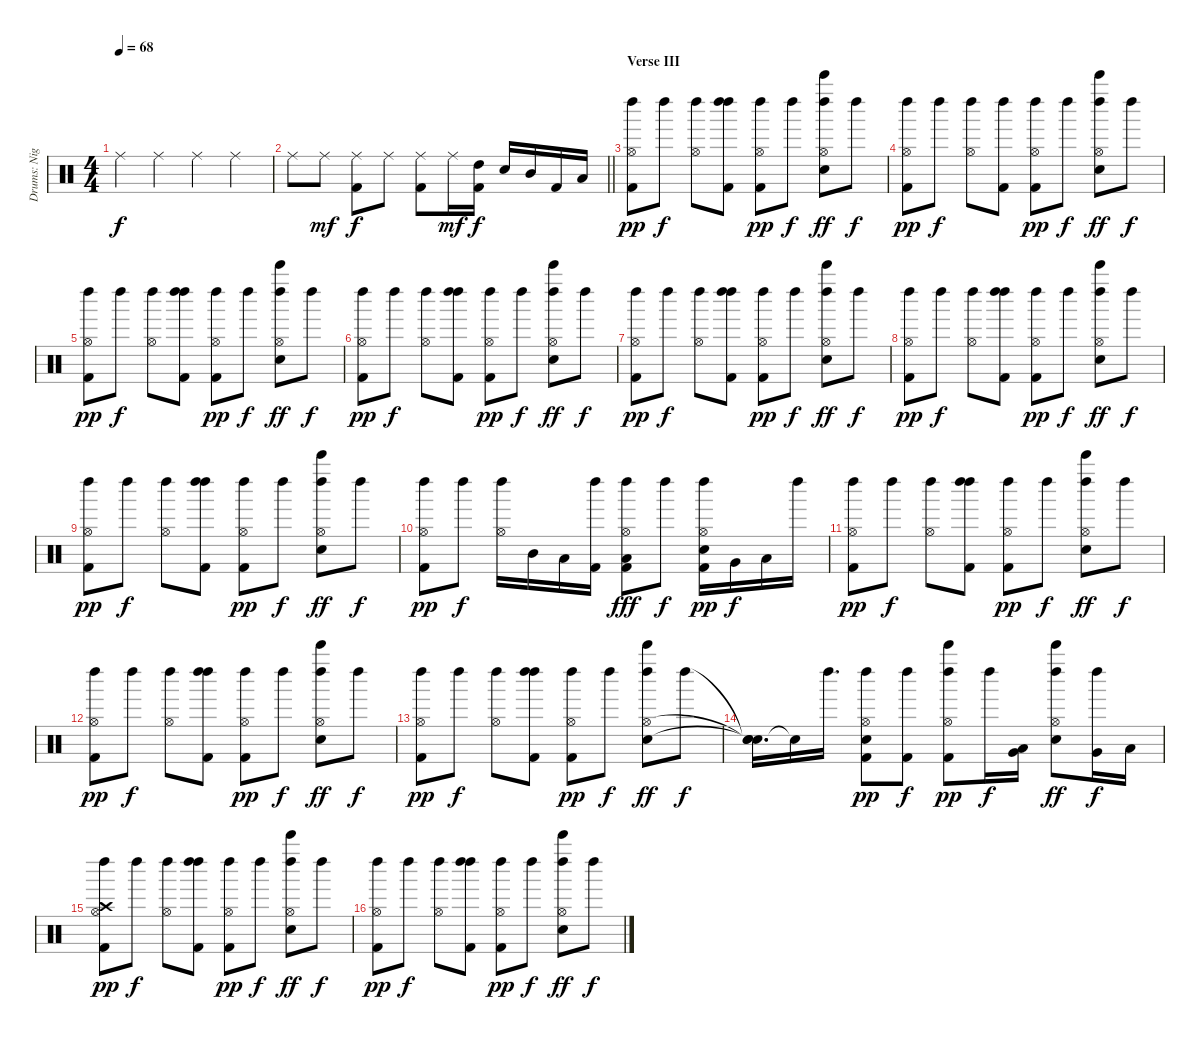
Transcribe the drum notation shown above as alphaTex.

\track ("Drums: Nigel Olsson" "Drums: Nig") {instrument percussion}
\staff {score}
\articulation defaults
\ts (4 4)
\tempo 68
\clef neutral
\ks c "Ride (middle)".4{dy f} "Ride (middle)".4 "Ride (middle)".4 "Ride (middle)".4
|
\barLineRight lightlight "Ride (middle)".8 "Ride (middle)".8{dy mf}
("Ride (middle)" "Kick (hit) 2").8{dy f} "Ride (middle)".8 ("Ride (middle)" "Kick (hit) 2").8 "Ride (middle)".16{dy mf} ("High Tom (hit)" "Kick (hit) 2").16{dy f} "Snare (hit) 2".16 "Mid Tom (hit)".16 "Kick (hit) 2".16 "Low Tom (hit)".16 |
\section ("" "Verse III")
("Hi-Hat (open)" "Kick (hit) 2" "Left Maraca (hit)").8{dy pp} "Left Maraca (hit)".8{dy f} ("Hi-Hat (open)" "Left Maraca (hit)").8 ("Left Maraca (hit)" "Kick (hit) 2" "Left Maraca (hit)").8 ("Hi-Hat (open)" "Kick (hit) 2" "Left Maraca (hit)").8{dy pp} "Left Maraca (hit)".8{dy f} ("Bell Tree (hit)" "Hi-Hat (open)" "Snare (hit) 2" "Left Maraca (hit)").8{dy ff} "Left Maraca (hit)".8{dy f} |
("Hi-Hat (open)" "Kick (hit) 2" "Left Maraca (hit)").8{dy pp} "Left Maraca (hit)".8{dy f} ("Hi-Hat (open)" "Left Maraca (hit)").8 ("Kick (hit) 2" "Left Maraca (hit)").8 ("Hi-Hat (open)" "Kick (hit) 2" "Left Maraca (hit)").8{dy pp} "Left Maraca (hit)".8{dy f} ("Bell Tree (hit)" "Hi-Hat (open)" "Snare (hit) 2" "Left Maraca (hit)").8{dy ff} "Left Maraca (hit)".8{dy f} |
("Hi-Hat (open)" "Kick (hit) 2" "Left Maraca (hit)").8{dy pp} "Left Maraca (hit)".8{dy f} ("Hi-Hat (open)" "Left Maraca (hit)").8 ("Left Maraca (hit)" "Kick (hit) 2" "Left Maraca (hit)").8 ("Hi-Hat (open)" "Kick (hit) 2" "Left Maraca (hit)").8{dy pp} "Left Maraca (hit)".8{dy f} ("Bell Tree (hit)" "Hi-Hat (open)" "Snare (hit) 2" "Left Maraca (hit)").8{dy ff} "Left Maraca (hit)".8{dy f} |
("Hi-Hat (open)" "Kick (hit) 2" "Left Maraca (hit)").8{dy pp} "Left Maraca (hit)".8{dy f} ("Hi-Hat (open)" "Left Maraca (hit)").8 ("Left Maraca (hit)" "Kick (hit) 2" "Left Maraca (hit)").8 ("Hi-Hat (open)" "Kick (hit) 2" "Left Maraca (hit)").8{dy pp} "Left Maraca (hit)".8{dy f} ("Bell Tree (hit)" "Hi-Hat (open)" "Snare (hit) 2" "Left Maraca (hit)").8{dy ff} "Left Maraca (hit)".8{dy f} |
("Hi-Hat (open)" "Kick (hit) 2" "Left Maraca (hit)").8{dy pp} "Left Maraca (hit)".8{dy f} ("Hi-Hat (open)" "Left Maraca (hit)").8 ("Left Maraca (hit)" "Kick (hit) 2" "Left Maraca (hit)").8 ("Hi-Hat (open)" "Kick (hit) 2" "Left Maraca (hit)").8{dy pp} "Left Maraca (hit)".8{dy f} ("Bell Tree (hit)" "Hi-Hat (open)" "Snare (hit) 2" "Left Maraca (hit)").8{dy ff} "Left Maraca (hit)".8{dy f} |
("Hi-Hat (open)" "Kick (hit) 2" "Left Maraca (hit)").8{dy pp} "Left Maraca (hit)".8{dy f} ("Hi-Hat (open)" "Left Maraca (hit)").8 ("Left Maraca (hit)" "Kick (hit) 2" "Left Maraca (hit)").8 ("Hi-Hat (open)" "Kick (hit) 2" "Left Maraca (hit)").8{dy pp} "Left Maraca (hit)".8{dy f} ("Bell Tree (hit)" "Hi-Hat (open)" "Snare (hit) 2" "Left Maraca (hit)").8{dy ff} "Left Maraca (hit)".8{dy f} |
("Hi-Hat (open)" "Kick (hit) 2" "Left Maraca (hit)").8{dy pp} "Left Maraca (hit)".8{dy f} ("Hi-Hat (open)" "Left Maraca (hit)").8 ("Left Maraca (hit)" "Kick (hit) 2" "Left Maraca (hit)").8 ("Hi-Hat (open)" "Kick (hit) 2" "Left Maraca (hit)").8{dy pp} "Left Maraca (hit)".8{dy f} ("Bell Tree (hit)" "Hi-Hat (open)" "Snare (hit) 2" "Left Maraca (hit)").8{dy ff} "Left Maraca (hit)".8{dy f} |
("Hi-Hat (open)" "Kick (hit) 2" "Left Maraca (hit)").8{dy pp} "Left Maraca (hit)".8{dy f} ("Hi-Hat (open)" "Left Maraca (hit)").16 "Mid Tom (hit)".16 "Low Tom (hit)".16 ("Kick (hit) 2" "Left Maraca (hit)").16 ("Low Tom (hit)" "Hi-Hat (open)" "Kick (hit) 2" "Left Maraca (hit)").8{dy fff} "Left Maraca (hit)".8{dy f} ("Hi-Hat (open)" "Snare (hit) 2" "Kick (hit) 2" "Left Maraca (hit)").16{dy pp} "Very Low Tom (hit)".16{dy f} "Low Floor Tom (hit)".16 "Left Maraca (hit)".16 |
("Hi-Hat (open)" "Kick (hit) 2" "Left Maraca (hit)").8{dy pp} "Left Maraca (hit)".8{dy f} ("Hi-Hat (open)" "Left Maraca (hit)").8 ("Left Maraca (hit)" "Kick (hit) 2" "Left Maraca (hit)").8 ("Hi-Hat (open)" "Kick (hit) 2" "Left Maraca (hit)").8{dy pp} "Left Maraca (hit)".8{dy f} ("Bell Tree (hit)" "Hi-Hat (open)" "Snare (hit) 2" "Left Maraca (hit)").8{dy ff} "Left Maraca (hit)".8{dy f} |
("Hi-Hat (open)" "Kick (hit) 2" "Left Maraca (hit)").8{dy pp} "Left Maraca (hit)".8{dy f} ("Hi-Hat (open)" "Left Maraca (hit)").8 ("Left Maraca (hit)" "Kick (hit) 2" "Left Maraca (hit)").8 ("Hi-Hat (open)" "Kick (hit) 2" "Left Maraca (hit)").8{dy pp} "Left Maraca (hit)".8{dy f} ("Bell Tree (hit)" "Hi-Hat (open)" "Snare (hit) 2" "Left Maraca (hit)").8{dy ff} "Left Maraca (hit)".8{dy f} |
("Hi-Hat (open)" "Kick (hit) 2" "Left Maraca (hit)").8{dy pp} "Left Maraca (hit)".8{dy f} ("Hi-Hat (open)" "Left Maraca (hit)").8 ("Left Maraca (hit)" "Kick (hit) 2" "Left Maraca (hit)").8 ("Hi-Hat (open)" "Kick (hit) 2" "Left Maraca (hit)").8{dy pp} "Left Maraca (hit)".8{dy f} ("Bell Tree (hit)" "Hi-Hat (open)" "Snare (hit) 2" "Left Maraca (hit)").8{dy ff} "Left Maraca (hit)".8{dy f} |
("Snare (hit)"{t} "Snare (hit)"{t} "Snare (hit)"{t}).16{d} "Snare (hit)"{t}.16 "Left Maraca (hit)".16{d} ("Hi-Hat (open)" "Snare (hit) 2" "Kick (hit) 2" "Left Maraca (hit)").8{dy pp} ("Kick (hit) 2" "Left Maraca (hit)").8{dy f} ("Bell Tree (hit)" "Hi-Hat (open)" "Kick (hit) 2" "Left Maraca (hit)").8{dy pp} "Left Maraca (hit)".16{dy f} ("Low Tom (hit)" "Very Low Tom (hit)").16 ("Bell Tree (hit)" "Hi-Hat (open)" "Snare (hit) 2" "Left Maraca (hit)").8{dy ff} ("Very Low Tom (hit)" "Left Maraca (hit)").16{dy f} "Low Floor Tom (hit)".16 |
("Crash high (hit)" "Hi-Hat (open)" "Kick (hit) 2" "Left Maraca (hit)").8{dy pp} "Left Maraca (hit)".8{dy f} ("Hi-Hat (open)" "Left Maraca (hit)").8 ("Left Maraca (hit)" "Kick (hit) 2" "Left Maraca (hit)").8 ("Hi-Hat (open)" "Kick (hit) 2" "Left Maraca (hit)").8{dy pp} "Left Maraca (hit)".8{dy f} ("Bell Tree (hit)" "Hi-Hat (open)" "Snare (hit) 2" "Left Maraca (hit)").8{dy ff} "Left Maraca (hit)".8{dy f} |
("Hi-Hat (open)" "Kick (hit) 2" "Left Maraca (hit)").8{dy pp} "Left Maraca (hit)".8{dy f} ("Hi-Hat (open)" "Left Maraca (hit)").8 ("Left Maraca (hit)" "Kick (hit) 2" "Left Maraca (hit)").8 ("Hi-Hat (open)" "Kick (hit) 2" "Left Maraca (hit)").8{dy pp} "Left Maraca (hit)".8{dy f} ("Bell Tree (hit)" "Hi-Hat (open)" "Snare (hit) 2" "Left Maraca (hit)").8{dy ff} "Left Maraca (hit)".8{dy f}
